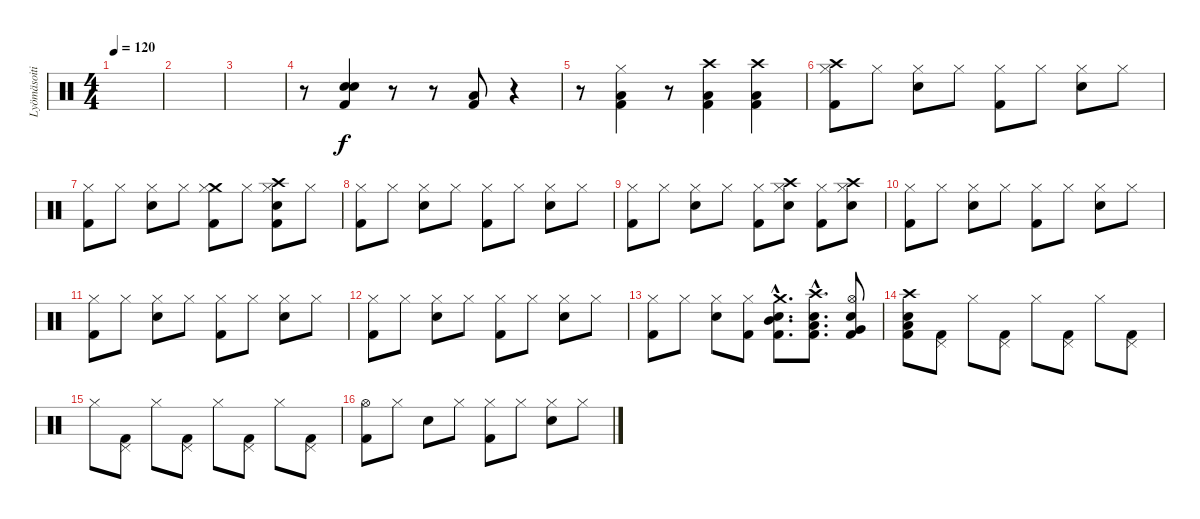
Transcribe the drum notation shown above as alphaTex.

\track ("Lyömäsoitin" "Lyömäsoiti") {instrument percussion}
\staff {score}
\articulation defaults
\ts (4 4)
\tempo 120
\clef neutral
\ks c
|
|
|
r.8 ("Electric Snare (hit)" "Electric Snare (hit)" "Kick (hit) 2").4 r.8 r.8 ("Low Tom (hit)" "Kick (hit) 2").8 r.4 |
r.8 ("Hi-Hat (closed)" "Low Tom (hit)" "Kick (hit) 2").4 r.8 ("Crash high (hit)" "Low Tom (hit)" "Kick (hit) 2").4 ("Crash high (hit)" "Low Tom (hit)" "Kick (hit) 2").4 |
("Crash high (hit)" "Hi-Hat (closed)" "Kick (hit) 2").8 "Hi-Hat (closed)".8 ("Hi-Hat (closed)" "Electric Snare (hit)").8 "Hi-Hat (closed)".8 ("Hi-Hat (closed)" "Kick (hit) 2").8 "Hi-Hat (closed)".8 ("Hi-Hat (closed)" "Electric Snare (hit)").8 "Hi-Hat (closed)".8 |
("Hi-Hat (closed)" "Kick (hit) 2").8 "Hi-Hat (closed)".8 ("Hi-Hat (closed)" "Electric Snare (hit)").8 "Hi-Hat (closed)".8 ("Crash medium (hit)" "Hi-Hat (closed)" "Kick (hit) 2").8 "Hi-Hat (closed)".8 ("Crash high (hit)" "Hi-Hat (closed)" "Electric Snare (hit)" "Kick (hit) 2").8 "Hi-Hat (closed)".8 |
("Hi-Hat (closed)" "Kick (hit) 2").8 "Hi-Hat (closed)".8 ("Hi-Hat (closed)" "Electric Snare (hit)").8 "Hi-Hat (closed)".8 ("Hi-Hat (closed)" "Kick (hit) 2").8 "Hi-Hat (closed)".8 ("Hi-Hat (closed)" "Electric Snare (hit)").8 "Hi-Hat (closed)".8 |
("Hi-Hat (closed)" "Kick (hit) 2").8 "Hi-Hat (closed)".8 ("Hi-Hat (closed)" "Electric Snare (hit)").8 "Hi-Hat (closed)".8 ("Hi-Hat (closed)" "Kick (hit) 2").8 ("Crash high (hit)" "Hi-Hat (closed)" "Electric Snare (hit)").8 ("Hi-Hat (closed)" "Kick (hit) 2").8 ("Crash high (hit)" "Hi-Hat (closed)" "Electric Snare (hit)").8 |
("Hi-Hat (closed)" "Kick (hit) 2").8 "Hi-Hat (closed)".8 ("Hi-Hat (closed)" "Electric Snare (hit)").8 "Hi-Hat (closed)".8 ("Hi-Hat (closed)" "Kick (hit) 2").8 "Hi-Hat (closed)".8 ("Hi-Hat (closed)" "Electric Snare (hit)").8 "Hi-Hat (closed)".8 |
("Hi-Hat (closed)" "Kick (hit) 2").8 "Hi-Hat (closed)".8 ("Hi-Hat (closed)" "Electric Snare (hit)").8 "Hi-Hat (closed)".8 ("Hi-Hat (closed)" "Kick (hit) 2").8 "Hi-Hat (closed)".8 ("Hi-Hat (closed)" "Electric Snare (hit)").8 "Hi-Hat (closed)".8 |
("Hi-Hat (closed)" "Kick (hit) 2").8 "Hi-Hat (closed)".8 ("Hi-Hat (closed)" "Electric Snare (hit)").8 "Hi-Hat (closed)".8 ("Hi-Hat (closed)" "Kick (hit) 2").8 "Hi-Hat (closed)".8 ("Hi-Hat (closed)" "Electric Snare (hit)").8 "Hi-Hat (closed)".8 |
("Hi-Hat (closed)" "Kick (hit) 2").8 "Hi-Hat (closed)".8 ("Hi-Hat (closed)" "Electric Snare (hit)").8 ("Hi-Hat (closed)" "Kick (hit) 2").8 ("Crash medium (hit)"{hac} "Mid Tom (hit)"{hac} "Electric Snare (hit)"{hac} "Kick (hit) 2"{hac}).8{d} ("Crash high (hit)"{hac} "Low Tom (hit)"{hac} "Electric Snare (hit)"{hac} "Kick (hit) 2"{hac}).8{d} ("Hi-Hat (open)" "Very Low Tom (hit)" "Electric Snare (hit)" "Kick (hit) 2").8 |
("Crash high (hit)" "Low Tom (hit)" "Electric Snare (hit)" "Kick (hit) 2").8 ("Pedal Hi-Hat (hit)" "Kick (hit) 2").8 "Hi-Hat (closed)".8 ("Pedal Hi-Hat (hit)" "Kick (hit) 2").8 "Hi-Hat (closed)".8 ("Pedal Hi-Hat (hit)" "Kick (hit) 2").8 "Hi-Hat (closed)".8 ("Pedal Hi-Hat (hit)" "Kick (hit) 2").8 |
"Hi-Hat (closed)".8 ("Pedal Hi-Hat (hit)" "Kick (hit) 2").8 "Hi-Hat (closed)".8 ("Pedal Hi-Hat (hit)" "Kick (hit) 2").8 "Hi-Hat (closed)".8 ("Pedal Hi-Hat (hit)" "Kick (hit) 2").8 "Hi-Hat (closed)".8 ("Pedal Hi-Hat (hit)" "Kick (hit) 2").8 |
("Hi-Hat (open)" "Kick (hit) 2").8 "Hi-Hat (closed)".8 "Electric Snare (hit)".8 "Hi-Hat (closed)".8 ("Hi-Hat (closed)" "Kick (hit) 2").8 "Hi-Hat (closed)".8 ("Hi-Hat (closed)" "Electric Snare (hit)").8 "Hi-Hat (closed)".8
